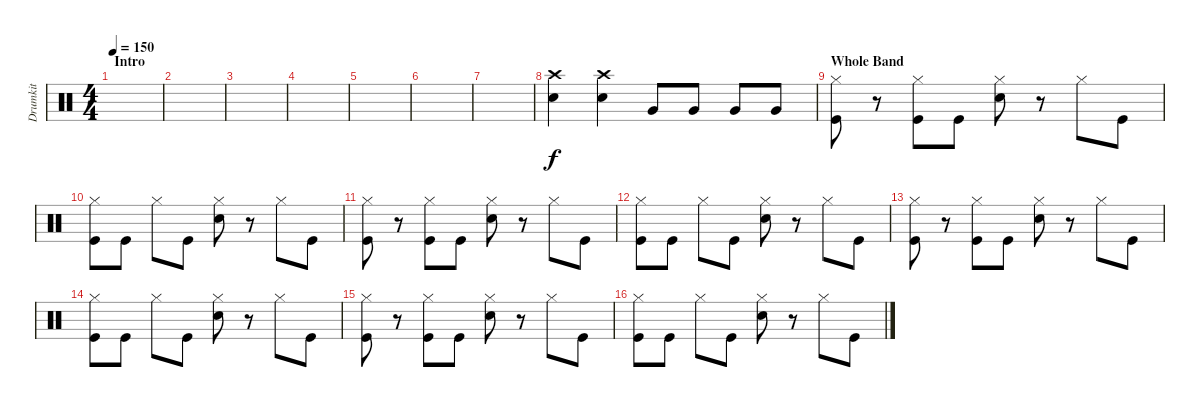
\track ("Drumkit" "Drumkit") {instrument percussion}
\staff {score}
\articulation defaults
\ts (4 4)
\section ("" "Intro")
\tempo 150
\clef neutral
\ks c
|
|
|
|
|
|
|
("Crash high (hit)" "Snare (hit) 2").4 ("Crash high (hit)" "Snare (hit) 2").4 "Very Low Tom (hit)".8 "Very Low Tom (hit)".8 "Very Low Tom (hit)".8 "Very Low Tom (hit)".8 |
\section ("" "Whole Band")
("Kick (hit)" "Hi-Hat (closed)").8 r.8 ("Kick (hit)" "Hi-Hat (closed)").8 "Kick (hit)".8 ("Snare (hit) 2" "Hi-Hat (closed)").8 r.8 "Hi-Hat (closed)".8 "Kick (hit)".8 |
("Kick (hit)" "Hi-Hat (closed)").8 "Kick (hit)".8 "Hi-Hat (closed)".8 "Kick (hit)".8 ("Snare (hit) 2" "Hi-Hat (closed)").8 r.8 "Hi-Hat (closed)".8 "Kick (hit)".8 |
("Kick (hit)" "Hi-Hat (closed)").8 r.8 ("Kick (hit)" "Hi-Hat (closed)").8 "Kick (hit)".8 ("Snare (hit) 2" "Hi-Hat (closed)").8 r.8 "Hi-Hat (closed)".8 "Kick (hit)".8 |
("Kick (hit)" "Hi-Hat (closed)").8 "Kick (hit)".8 "Hi-Hat (closed)".8 "Kick (hit)".8 ("Snare (hit) 2" "Hi-Hat (closed)").8 r.8 "Hi-Hat (closed)".8 "Kick (hit)".8 |
("Kick (hit)" "Hi-Hat (closed)").8 r.8 ("Kick (hit)" "Hi-Hat (closed)").8 "Kick (hit)".8 ("Snare (hit) 2" "Hi-Hat (closed)").8 r.8 "Hi-Hat (closed)".8 "Kick (hit)".8 |
("Kick (hit)" "Hi-Hat (closed)").8 "Kick (hit)".8 "Hi-Hat (closed)".8 "Kick (hit)".8 ("Snare (hit) 2" "Hi-Hat (closed)").8 r.8 "Hi-Hat (closed)".8 "Kick (hit)".8 |
("Kick (hit)" "Hi-Hat (closed)").8 r.8 ("Kick (hit)" "Hi-Hat (closed)").8 "Kick (hit)".8 ("Snare (hit) 2" "Hi-Hat (closed)").8 r.8 "Hi-Hat (closed)".8 "Kick (hit)".8 |
("Kick (hit)" "Hi-Hat (closed)").8 "Kick (hit)".8 "Hi-Hat (closed)".8 "Kick (hit)".8 ("Snare (hit) 2" "Hi-Hat (closed)").8 r.8 "Hi-Hat (closed)".8 "Kick (hit)".8
